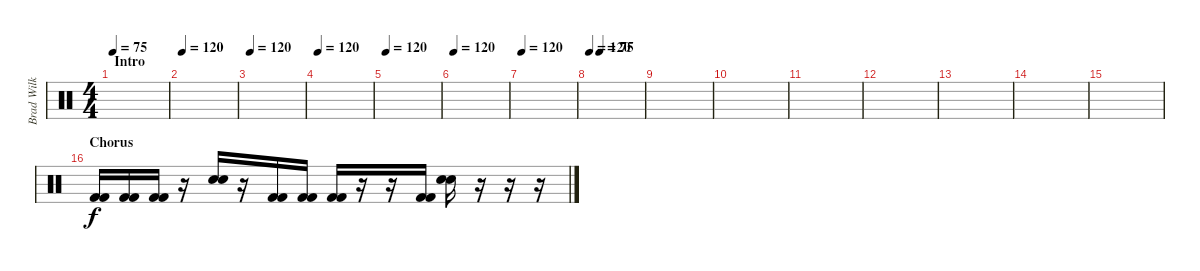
\track ("Brad Wilk" "Brad Wilk") {instrument percussion}
\staff {score}
\articulation defaults
\ts (4 4)
\section ("" "Intro")
\tempo 75
\tempo 120
\tempo 75
\clef neutral
\ks c
|
\tempo 120
|
\tempo 120
|
\tempo 120
|
\tempo 120
|
\tempo 120
|
\tempo 120
|
\tempo 120
\tempo (75 0.1875)
|
|
|
|
|
|
|
|
\section ("" "Chorus")
("Kick (hit) 2" "Kick (hit) 2").16 ("Kick (hit) 2" "Kick (hit) 2").16 ("Kick (hit) 2" "Kick (hit) 2").16 r.16 ("Electric Snare (hit)" "Electric Snare (hit)").16 r.16 ("Kick (hit) 2" "Kick (hit) 2").16 ("Kick (hit) 2" "Kick (hit) 2").16 ("Kick (hit) 2" "Kick (hit) 2").16 r.16 r.16 ("Kick (hit) 2" "Kick (hit) 2").16 ("Electric Snare (hit)" "Electric Snare (hit)").16 r.16 r.16 r.16
